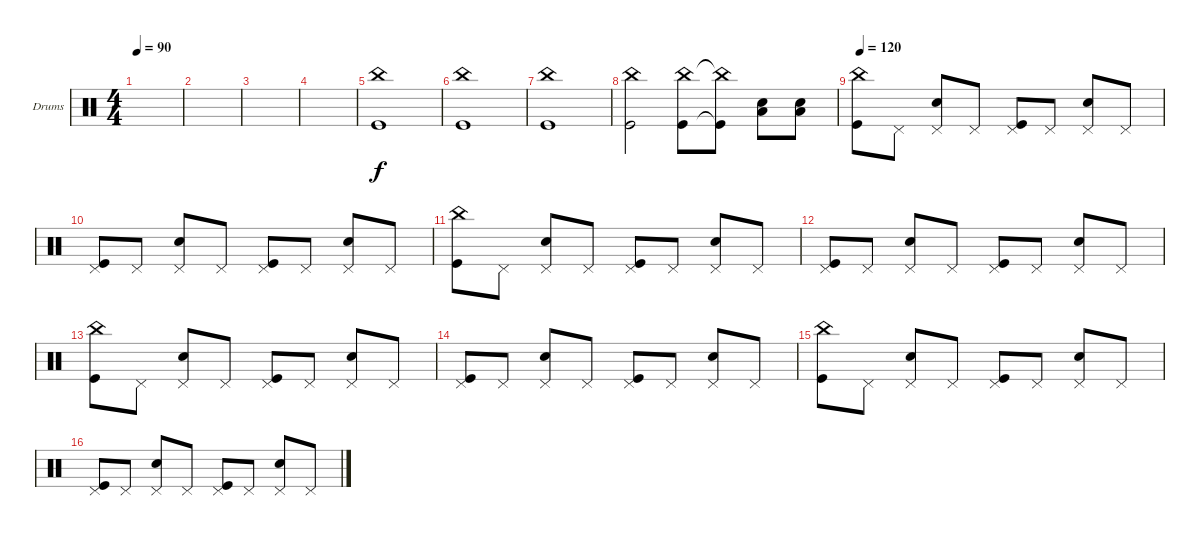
\defaultSystemsLayout 4
\bracketExtendMode groupsimilarinstruments
\firstSystemTrackNameOrientation horizontal
\otherSystemsTrackNameOrientation horizontal
\track ("Drumkit" "Drums") {instrument percussion}
\staff {score}
\articulation defaults
\ts (4 4)
\tempo 90
\clef neutral
\ks c
|
|
|
|
("Kick (hit)" "China (hit)").1 |
("Kick (hit)" "China (hit)").1 |
("Kick (hit)" "China (hit)").1 |
("Kick (hit)" "China (hit)").2 ("China (hit)" "Kick (hit)").8 ("China (hit)"{t} "Kick (hit)"{t}).8 ("Snare (hit) 2" "Low Tom (hit)").8 ("Low Tom (hit)" "Snare (hit) 2").8 |
\tempo 120
("Kick (hit)" "China (hit)").8 "Pedal Hi-Hat (hit)".8 ("Snare (hit) 2" "Pedal Hi-Hat (hit)").8 "Pedal Hi-Hat (hit)".8 ("Kick (hit)" "Pedal Hi-Hat (hit)").8 "Pedal Hi-Hat (hit)".8 ("Snare (hit) 2" "Pedal Hi-Hat (hit)").8 "Pedal Hi-Hat (hit)".8 |
("Kick (hit)" "Pedal Hi-Hat (hit)").8 "Pedal Hi-Hat (hit)".8 ("Snare (hit) 2" "Pedal Hi-Hat (hit)").8 "Pedal Hi-Hat (hit)".8 ("Kick (hit)" "Pedal Hi-Hat (hit)").8 "Pedal Hi-Hat (hit)".8 ("Snare (hit) 2" "Pedal Hi-Hat (hit)").8 "Pedal Hi-Hat (hit)".8 |
("Kick (hit)" "China (hit)").8 "Pedal Hi-Hat (hit)".8 ("Snare (hit) 2" "Pedal Hi-Hat (hit)").8 "Pedal Hi-Hat (hit)".8 ("Kick (hit)" "Pedal Hi-Hat (hit)").8 "Pedal Hi-Hat (hit)".8 ("Snare (hit) 2" "Pedal Hi-Hat (hit)").8 "Pedal Hi-Hat (hit)".8 |
("Kick (hit)" "Pedal Hi-Hat (hit)").8 "Pedal Hi-Hat (hit)".8 ("Snare (hit) 2" "Pedal Hi-Hat (hit)").8 "Pedal Hi-Hat (hit)".8 ("Kick (hit)" "Pedal Hi-Hat (hit)").8 "Pedal Hi-Hat (hit)".8 ("Snare (hit) 2" "Pedal Hi-Hat (hit)").8 "Pedal Hi-Hat (hit)".8 |
("Kick (hit)" "China (hit)").8 "Pedal Hi-Hat (hit)".8 ("Snare (hit) 2" "Pedal Hi-Hat (hit)").8 "Pedal Hi-Hat (hit)".8 ("Kick (hit)" "Pedal Hi-Hat (hit)").8 "Pedal Hi-Hat (hit)".8 ("Snare (hit) 2" "Pedal Hi-Hat (hit)").8 "Pedal Hi-Hat (hit)".8 |
("Kick (hit)" "Pedal Hi-Hat (hit)").8 "Pedal Hi-Hat (hit)".8 ("Snare (hit) 2" "Pedal Hi-Hat (hit)").8 "Pedal Hi-Hat (hit)".8 ("Kick (hit)" "Pedal Hi-Hat (hit)").8 "Pedal Hi-Hat (hit)".8 ("Snare (hit) 2" "Pedal Hi-Hat (hit)").8 "Pedal Hi-Hat (hit)".8 |
("Kick (hit)" "China (hit)").8 "Pedal Hi-Hat (hit)".8 ("Snare (hit) 2" "Pedal Hi-Hat (hit)").8 "Pedal Hi-Hat (hit)".8 ("Kick (hit)" "Pedal Hi-Hat (hit)").8 "Pedal Hi-Hat (hit)".8 ("Snare (hit) 2" "Pedal Hi-Hat (hit)").8 "Pedal Hi-Hat (hit)".8 |
("Kick (hit)" "Pedal Hi-Hat (hit)").8 "Pedal Hi-Hat (hit)".8 ("Snare (hit) 2" "Pedal Hi-Hat (hit)").8 "Pedal Hi-Hat (hit)".8 ("Kick (hit)" "Pedal Hi-Hat (hit)").8 "Pedal Hi-Hat (hit)".8 ("Snare (hit) 2" "Pedal Hi-Hat (hit)").8 "Pedal Hi-Hat (hit)".8
